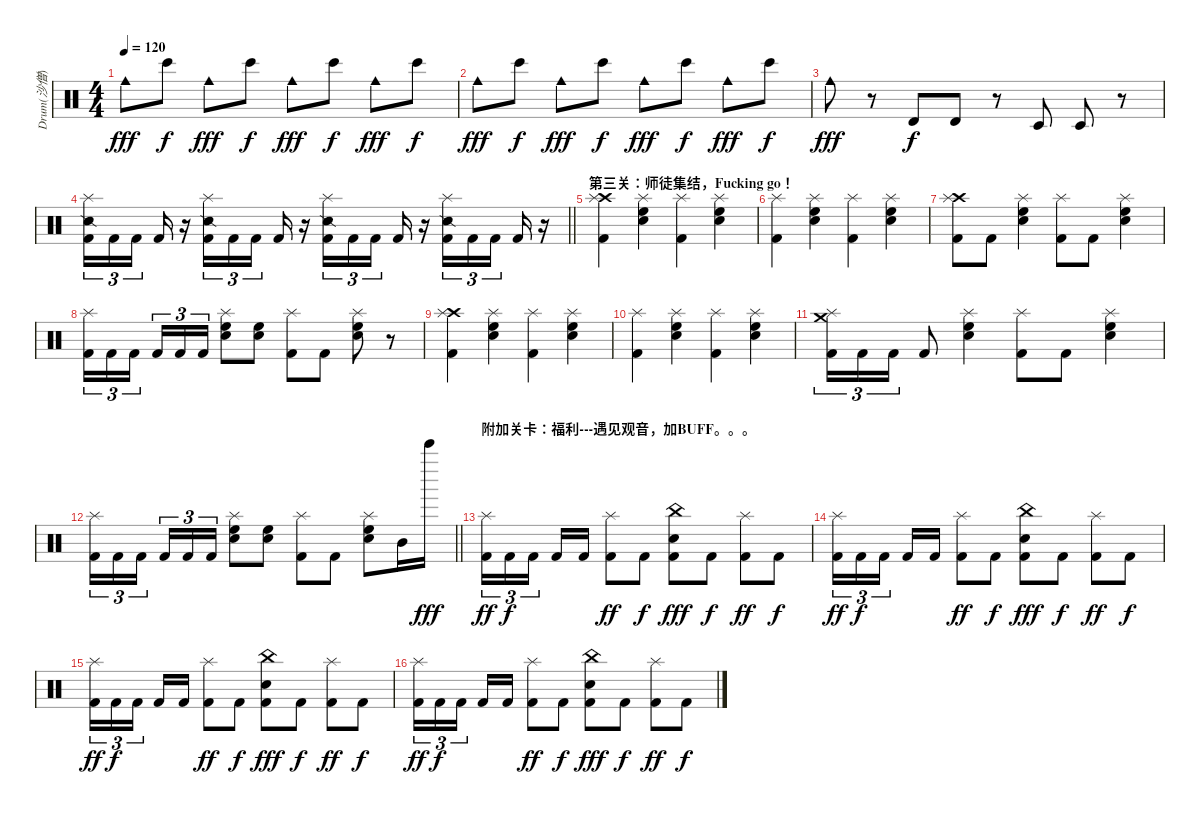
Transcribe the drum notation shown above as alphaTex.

\track ("Drum(沙僧)" "Drum(沙僧)") {instrument percussion}
\staff {score}
\articulation defaults
\ts (4 4)
\tempo 120
\clef neutral
\ks c "Cowbell medium (hit)".8{dy fff} "Bongo High (hit)".8{dy f} "Cowbell medium (hit)".8{dy fff} "Bongo High (hit)".8{dy f} "Cowbell medium (hit)".8{dy fff} "Bongo High (hit)".8{dy f} "Cowbell medium (hit)".8{dy fff} "Bongo High (hit)".8{dy f}
|
"Cowbell medium (hit)".8{dy fff} "Bongo High (hit)".8{dy f} "Cowbell medium (hit)".8{dy fff} "Bongo High (hit)".8{dy f} "Cowbell medium (hit)".8{dy fff} "Bongo High (hit)".8{dy f} "Cowbell medium (hit)".8{dy fff} "Bongo High (hit)".8{dy f} |
"Cowbell medium (hit)".8{dy fff} r.8 "Timbale high (hit)".8{dy f} "Timbale high (hit)".8 r.8 "Timbale low (hit)".8 "Timbale low (hit)".8 r.8 |
\barLineRight lightlight
("Splash (hit)" "Snare (side stick) 2" "Kick (hit) 2").16{tu (3 2)} "Kick (hit) 2".16{tu (3 2)} "Kick (hit) 2".16{tu (3 2) beam splitsecondary} "Kick (hit) 2".16 r.16 ("Splash (hit)" "Snare (side stick) 2" "Kick (hit) 2").16{tu (3 2)} "Kick (hit) 2".16{tu (3 2)} "Kick (hit) 2".16{tu (3 2) beam splitsecondary} "Kick (hit) 2".16 r.16 ("Splash (hit)" "Snare (side stick) 2" "Kick (hit) 2").16{tu (3 2)} "Kick (hit) 2".16{tu (3 2)} "Kick (hit) 2".16{tu (3 2) beam splitsecondary} "Kick (hit) 2".16 r.16 ("Splash (hit)" "Snare (side stick) 2" "Kick (hit) 2").16{tu (3 2)} "Kick (hit) 2".16{tu (3 2)} "Kick (hit) 2".16{tu (3 2) beam splitsecondary} "Kick (hit) 2".16 r.16 |
\section ("" "第三关：师徒集结，Fucking go！")
("Crash high (hit)" "Splash (hit)" "Kick (hit) 2").4 ("High Floor Tom (hit)" "Splash (hit)" "Snare (hit) 2").4 ("Splash (hit)" "Kick (hit) 2").4 ("High Floor Tom (hit)" "Splash (hit)" "Snare (hit) 2").4 |
("Splash (hit)" "Kick (hit) 2").4 ("High Floor Tom (hit)" "Splash (hit)" "Snare (hit) 2").4 ("Splash (hit)" "Kick (hit) 2").4 ("High Floor Tom (hit)" "Splash (hit)" "Snare (hit) 2").4 |
("Crash high (hit)" "Splash (hit)" "Kick (hit) 2").8 "Kick (hit) 2".8 ("High Floor Tom (hit)" "Splash (hit)" "Snare (hit) 2").4 ("Splash (hit)" "Kick (hit) 2").8 "Kick (hit) 2".8 ("High Floor Tom (hit)" "Splash (hit)" "Snare (hit) 2").4 |
("Splash (hit)" "Kick (hit) 2").16{tu (3 2)} "Kick (hit) 2".16{tu (3 2)} "Kick (hit) 2".16{tu (3 2) beam splitsecondary} "Kick (hit) 2".16{tu (3 2)} "Kick (hit) 2".16{tu (3 2)} "Kick (hit) 2".16{tu (3 2)} ("High Floor Tom (hit)" "Splash (hit)" "Snare (hit) 2").8 ("High Floor Tom (hit)" "Snare (hit) 2").8 ("Splash (hit)" "Kick (hit) 2").8 "Kick (hit) 2".8 ("High Floor Tom (hit)" "Splash (hit)" "Snare (hit) 2").8 r.8 |
("Crash high (hit)" "Splash (hit)" "Kick (hit) 2").4 ("High Floor Tom (hit)" "Splash (hit)" "Snare (hit) 2").4 ("Splash (hit)" "Kick (hit) 2").4 ("High Floor Tom (hit)" "Splash (hit)" "Snare (hit) 2").4 |
("Splash (hit)" "Kick (hit) 2").4 ("High Floor Tom (hit)" "Splash (hit)" "Snare (hit) 2").4 ("Splash (hit)" "Kick (hit) 2").4 ("High Floor Tom (hit)" "Splash (hit)" "Snare (hit) 2").4 |
("Crash medium (hit)" "Splash (hit)" "Kick (hit) 2").16{tu (3 2)} "Kick (hit) 2".16{tu (3 2)} "Kick (hit) 2".16{tu (3 2)} "Kick (hit) 2".8 ("High Floor Tom (hit)" "Splash (hit)" "Snare (hit) 2").4 ("Splash (hit)" "Kick (hit) 2").8 "Kick (hit) 2".8 ("High Floor Tom (hit)" "Splash (hit)" "Snare (hit) 2").4 |
\barLineRight lightlight
("Splash (hit)" "Kick (hit) 2").16{tu (3 2)} "Kick (hit) 2".16{tu (3 2)} "Kick (hit) 2".16{tu (3 2) beam splitsecondary} "Kick (hit) 2".16{tu (3 2)} "Kick (hit) 2".16{tu (3 2)} "Kick (hit) 2".16{tu (3 2)} ("High Floor Tom (hit)" "Splash (hit)" "Snare (hit) 2").8 ("High Floor Tom (hit)" "Snare (hit) 2").8 ("Splash (hit)" "Kick (hit) 2").8 "Kick (hit) 2".8 ("High Floor Tom (hit)" "Splash (hit)" "Snare (hit) 2").8 "Mid Tom (hit)".16 "Bell Tree (hit)".16{dy fff} |
\section ("" "附加关卡：福利---遇见观音，加BUFF。。。")
("Splash (hit)" "Kick (hit) 2").16{tu (3 2) dy ff} "Kick (hit) 2".16{tu (3 2) dy f} "Kick (hit) 2".16{tu (3 2) beam splitsecondary} "Kick (hit) 2".16 "Kick (hit) 2".16 ("Splash (hit)" "Kick (hit) 2").8{dy ff} "Kick (hit) 2".8{dy f} ("China (hit)" "Snare (hit) 2" "Kick (hit) 2").8{dy fff} "Kick (hit) 2".8{dy f} ("Splash (hit)" "Kick (hit) 2").8{dy ff} "Kick (hit) 2".8{dy f} |
("Splash (hit)" "Kick (hit) 2").16{tu (3 2) dy ff} "Kick (hit) 2".16{tu (3 2) dy f} "Kick (hit) 2".16{tu (3 2) beam splitsecondary} "Kick (hit) 2".16 "Kick (hit) 2".16 ("Splash (hit)" "Kick (hit) 2").8{dy ff} "Kick (hit) 2".8{dy f} ("China (hit)" "Snare (hit) 2" "Kick (hit) 2").8{dy fff} "Kick (hit) 2".8{dy f} ("Splash (hit)" "Kick (hit) 2").8{dy ff} "Kick (hit) 2".8{dy f} |
("Splash (hit)" "Kick (hit) 2").16{tu (3 2) dy ff} "Kick (hit) 2".16{tu (3 2) dy f} "Kick (hit) 2".16{tu (3 2) beam splitsecondary} "Kick (hit) 2".16 "Kick (hit) 2".16 ("Splash (hit)" "Kick (hit) 2").8{dy ff} "Kick (hit) 2".8{dy f} ("China (hit)" "Snare (hit) 2" "Kick (hit) 2").8{dy fff} "Kick (hit) 2".8{dy f} ("Splash (hit)" "Kick (hit) 2").8{dy ff} "Kick (hit) 2".8{dy f} |
("Splash (hit)" "Kick (hit) 2").16{tu (3 2) dy ff} "Kick (hit) 2".16{tu (3 2) dy f} "Kick (hit) 2".16{tu (3 2) beam splitsecondary} "Kick (hit) 2".16 "Kick (hit) 2".16 ("Splash (hit)" "Kick (hit) 2").8{dy ff} "Kick (hit) 2".8{dy f} ("China (hit)" "Snare (hit) 2" "Kick (hit) 2").8{dy fff} "Kick (hit) 2".8{dy f} ("Splash (hit)" "Kick (hit) 2").8{dy ff} "Kick (hit) 2".8{dy f}
